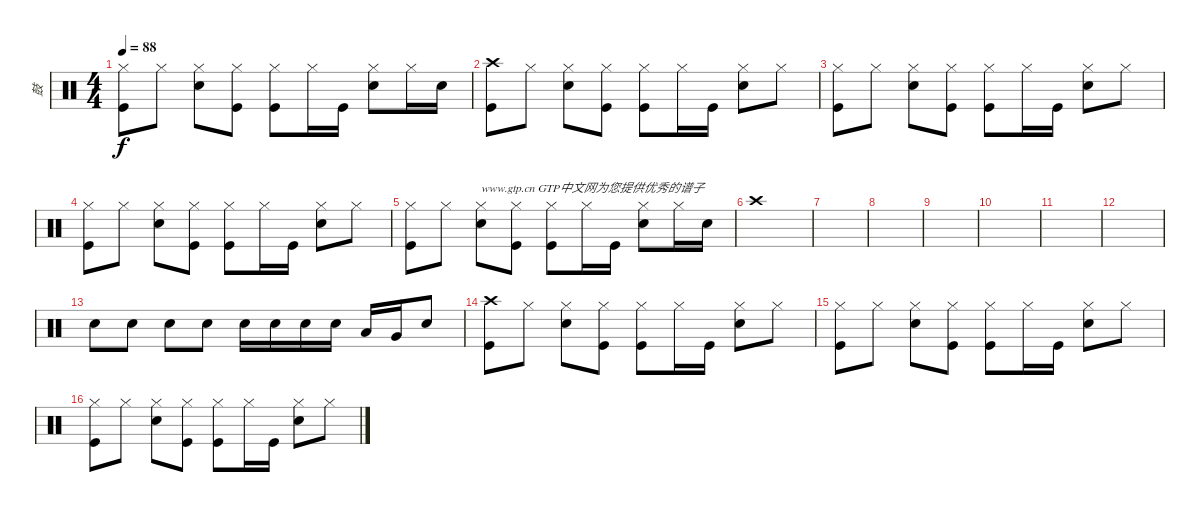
\track ("鼓" "鼓") {instrument percussion}
\staff {score}
\articulation defaults
\ts (4 4)
\tempo 88
\clef neutral
\ks c
("Hi-Hat (closed)" "Kick (hit)").8{dy f} "Hi-Hat (closed)".8 ("Hi-Hat (closed)" "Snare (hit) 2").8 ("Hi-Hat (closed)" "Kick (hit)").8 ("Hi-Hat (closed)" "Kick (hit)").8 "Hi-Hat (closed)".16 "Kick (hit)".16 ("Hi-Hat (closed)" "Snare (hit) 2").8 "Hi-Hat (closed)".16 "Snare (hit) 2".16 |
("Crash high (hit)" "Kick (hit)").8 "Hi-Hat (closed)".8 ("Hi-Hat (closed)" "Snare (hit) 2").8 ("Hi-Hat (closed)" "Kick (hit)").8 ("Hi-Hat (closed)" "Kick (hit)").8 "Hi-Hat (closed)".16 "Kick (hit)".16 ("Hi-Hat (closed)" "Snare (hit) 2").8 "Hi-Hat (closed)".8 |
("Hi-Hat (closed)" "Kick (hit)").8 "Hi-Hat (closed)".8 ("Hi-Hat (closed)" "Snare (hit) 2").8 ("Hi-Hat (closed)" "Kick (hit)").8 ("Hi-Hat (closed)" "Kick (hit)").8 "Hi-Hat (closed)".16 "Kick (hit)".16 ("Hi-Hat (closed)" "Snare (hit) 2").8 "Hi-Hat (closed)".8 |
("Hi-Hat (closed)" "Kick (hit)").8 "Hi-Hat (closed)".8 ("Hi-Hat (closed)" "Snare (hit) 2").8 ("Hi-Hat (closed)" "Kick (hit)").8 ("Hi-Hat (closed)" "Kick (hit)").8 "Hi-Hat (closed)".16 "Kick (hit)".16 ("Hi-Hat (closed)" "Snare (hit) 2").8 "Hi-Hat (closed)".8 |
("Hi-Hat (closed)" "Kick (hit)").8 "Hi-Hat (closed)".8 ("Hi-Hat (closed)" "Snare (hit) 2").8{txt "www.gtp.cn GTP中文网为您提供优秀的谱子"} ("Hi-Hat (closed)" "Kick (hit)").8 ("Hi-Hat (closed)" "Kick (hit)").8 "Hi-Hat (closed)".16 "Kick (hit)".16 ("Hi-Hat (closed)" "Snare (hit) 2").8 "Hi-Hat (closed)".16 "Snare (hit) 2".16 |
"Crash high (hit)".1 |
|
|
|
|
|
|
"Snare (hit) 2".8 "Snare (hit) 2".8 "Snare (hit) 2".8 "Snare (hit) 2".8 "Snare (hit) 2".16 "Snare (hit) 2".16 "Snare (hit) 2".16 "Snare (hit) 2".16 "Low Tom (hit)".16 "Very Low Tom (hit)".16 "Snare (hit) 2".8 |
("Crash high (hit)" "Kick (hit)").8 "Hi-Hat (closed)".8 ("Hi-Hat (closed)" "Snare (hit) 2").8 ("Hi-Hat (closed)" "Kick (hit)").8 ("Hi-Hat (closed)" "Kick (hit)").8 "Hi-Hat (closed)".16 "Kick (hit)".16 ("Hi-Hat (closed)" "Snare (hit) 2").8 "Hi-Hat (closed)".8 |
("Hi-Hat (closed)" "Kick (hit)").8 "Hi-Hat (closed)".8 ("Hi-Hat (closed)" "Snare (hit) 2").8 ("Hi-Hat (closed)" "Kick (hit)").8 ("Hi-Hat (closed)" "Kick (hit)").8 "Hi-Hat (closed)".16 "Kick (hit)".16 ("Hi-Hat (closed)" "Snare (hit) 2").8 "Hi-Hat (closed)".8 |
("Hi-Hat (closed)" "Kick (hit)").8 "Hi-Hat (closed)".8 ("Hi-Hat (closed)" "Snare (hit) 2").8 ("Hi-Hat (closed)" "Kick (hit)").8 ("Hi-Hat (closed)" "Kick (hit)").8 "Hi-Hat (closed)".16 "Kick (hit)".16 ("Hi-Hat (closed)" "Snare (hit) 2").8 "Hi-Hat (closed)".8
